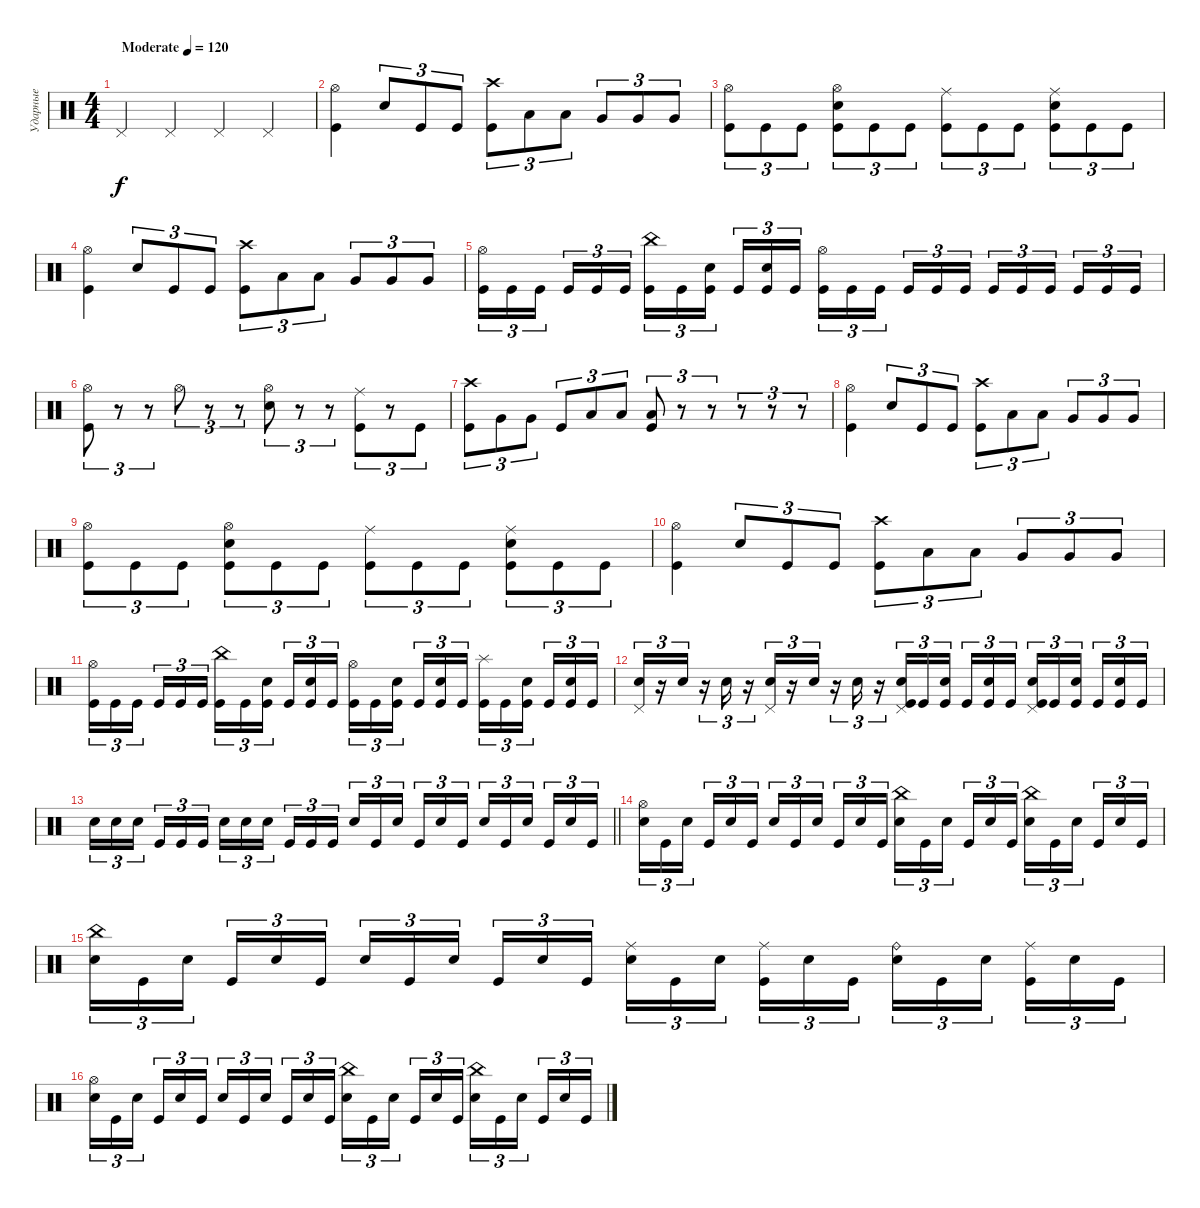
\track ("Ударные" "Ударные") {instrument percussion}
\staff {score}
\articulation defaults
\ts (4 4)
\tempo (120 "Moderate")
\clef neutral
\ks c "Pedal Hi-Hat (hit)".4{dy f} "Pedal Hi-Hat (hit)".4 "Pedal Hi-Hat (hit)".4 "Pedal Hi-Hat (hit)".4
|
("Hi-Hat (open)" "Kick (hit)").4 "Electric Snare (hit)".8{tu (3 2)} "Kick (hit)".8{tu (3 2)} "Kick (hit)".8{tu (3 2)} ("Crash high (hit)" "Kick (hit)").8{tu (3 2)} "Low Tom (hit)".8{tu (3 2)} "Low Tom (hit)".8{tu (3 2)} "Very Low Tom (hit)".8{tu (3 2)} "Very Low Tom (hit)".8{tu (3 2)} "Very Low Tom (hit)".8{tu (3 2)} |
("Hi-Hat (open)" "Kick (hit)").8{tu (3 2)} "Kick (hit)".8{tu (3 2)} "Kick (hit)".8{tu (3 2)} ("Hi-Hat (open)" "Electric Snare (hit)" "Kick (hit)").8{tu (3 2)} "Kick (hit)".8{tu (3 2)} "Kick (hit)".8{tu (3 2)} ("Ride (middle)" "Kick (hit)").8{tu (3 2)} "Kick (hit)".8{tu (3 2)} "Kick (hit)".8{tu (3 2)} ("Ride (middle)" "Electric Snare (hit)" "Kick (hit)").8{tu (3 2)} "Kick (hit)".8{tu (3 2)} "Kick (hit)".8{tu (3 2)} |
("Hi-Hat (open)" "Kick (hit)").4 "Electric Snare (hit)".8{tu (3 2)} "Kick (hit)".8{tu (3 2)} "Kick (hit)".8{tu (3 2)} ("Crash high (hit)" "Kick (hit)").8{tu (3 2)} "Low Tom (hit)".8{tu (3 2)} "Low Tom (hit)".8{tu (3 2)} "Very Low Tom (hit)".8{tu (3 2)} "Very Low Tom (hit)".8{tu (3 2)} "Very Low Tom (hit)".8{tu (3 2)} |
("Hi-Hat (open)" "Kick (hit)").16{tu (3 2)} "Kick (hit)".16{tu (3 2)} "Kick (hit)".16{tu (3 2) beam splitsecondary} "Kick (hit)".16{tu (3 2)} "Kick (hit)".16{tu (3 2)} "Kick (hit)".16{tu (3 2)} ("China (hit)" "Kick (hit)").16{tu (3 2)} "Kick (hit)".16{tu (3 2)} ("Electric Snare (hit)" "Kick (hit)").16{tu (3 2) beam splitsecondary} "Kick (hit)".16{tu (3 2)} ("Electric Snare (hit)" "Kick (hit)").16{tu (3 2)} "Kick (hit)".16{tu (3 2)} ("Hi-Hat (open)" "Kick (hit)").16{tu (3 2)} "Kick (hit)".16{tu (3 2)} "Kick (hit)".16{tu (3 2) beam splitsecondary} "Kick (hit)".16{tu (3 2)} "Kick (hit)".16{tu (3 2)} "Kick (hit)".16{tu (3 2)} "Kick (hit)".16{tu (3 2)} "Kick (hit)".16{tu (3 2)} "Kick (hit)".16{tu (3 2) beam splitsecondary} "Kick (hit)".16{tu (3 2)} "Kick (hit)".16{tu (3 2)} "Kick (hit)".16{tu (3 2)} |
("Hi-Hat (open)" "Kick (hit)").8{tu (3 2)} r.8{tu (3 2)} r.8{tu (3 2)} "Hi-Hat (open)".8{tu (3 2)} r.8{tu (3 2)} r.8{tu (3 2)} ("Hi-Hat (open)" "Electric Snare (hit)").8{tu (3 2)} r.8{tu (3 2)} r.8{tu (3 2)} ("Ride (middle)" "Kick (hit)").8{tu (3 2)} r.8{tu (3 2)} "Kick (hit)".8{tu (3 2)} |
("Crash high (hit)" "Kick (hit)").8{tu (3 2)} "Very Low Tom (hit)".8{tu (3 2)} "Very Low Tom (hit)".8{tu (3 2)} "Kick (hit)".8{tu (3 2)} "Low Tom (hit)".8{tu (3 2)} "Low Tom (hit)".8{tu (3 2)} ("Low Floor Tom (hit)" "Kick (hit)").8{tu (3 2)} r.8{tu (3 2)} r.8{tu (3 2)} r.8{tu (3 2)} r.8{tu (3 2)} r.8{tu (3 2)} |
("Hi-Hat (open)" "Kick (hit)").4 "Electric Snare (hit)".8{tu (3 2)} "Kick (hit)".8{tu (3 2)} "Kick (hit)".8{tu (3 2)} ("Crash high (hit)" "Kick (hit)").8{tu (3 2)} "Low Tom (hit)".8{tu (3 2)} "Low Tom (hit)".8{tu (3 2)} "Very Low Tom (hit)".8{tu (3 2)} "Very Low Tom (hit)".8{tu (3 2)} "Very Low Tom (hit)".8{tu (3 2)} |
("Hi-Hat (open)" "Kick (hit)").8{tu (3 2)} "Kick (hit)".8{tu (3 2)} "Kick (hit)".8{tu (3 2)} ("Hi-Hat (open)" "Electric Snare (hit)" "Kick (hit)").8{tu (3 2)} "Kick (hit)".8{tu (3 2)} "Kick (hit)".8{tu (3 2)} ("Ride (middle)" "Kick (hit)").8{tu (3 2)} "Kick (hit)".8{tu (3 2)} "Kick (hit)".8{tu (3 2)} ("Ride (middle)" "Electric Snare (hit)" "Kick (hit)").8{tu (3 2)} "Kick (hit)".8{tu (3 2)} "Kick (hit)".8{tu (3 2)} |
("Hi-Hat (open)" "Kick (hit)").4 "Electric Snare (hit)".8{tu (3 2)} "Kick (hit)".8{tu (3 2)} "Kick (hit)".8{tu (3 2)} ("Crash high (hit)" "Kick (hit)").8{tu (3 2)} "Low Tom (hit)".8{tu (3 2)} "Low Tom (hit)".8{tu (3 2)} "Very Low Tom (hit)".8{tu (3 2)} "Very Low Tom (hit)".8{tu (3 2)} "Very Low Tom (hit)".8{tu (3 2)} |
("Hi-Hat (open)" "Kick (hit)").16{tu (3 2)} "Kick (hit)".16{tu (3 2)} "Kick (hit)".16{tu (3 2) beam splitsecondary} "Kick (hit)".16{tu (3 2)} "Kick (hit)".16{tu (3 2)} "Kick (hit)".16{tu (3 2)} ("China (hit)" "Kick (hit)").16{tu (3 2)} "Kick (hit)".16{tu (3 2)} ("Electric Snare (hit)" "Kick (hit)").16{tu (3 2) beam splitsecondary} "Kick (hit)".16{tu (3 2)} ("Electric Snare (hit)" "Kick (hit)").16{tu (3 2)} "Kick (hit)".16{tu (3 2)} ("Hi-Hat (open)" "Kick (hit)").16{tu (3 2)} "Kick (hit)".16{tu (3 2)} ("Electric Snare (hit)" "Kick (hit)").16{tu (3 2) beam splitsecondary} "Kick (hit)".16{tu (3 2)} ("Electric Snare (hit)" "Kick (hit)").16{tu (3 2)} "Kick (hit)".16{tu (3 2)} ("Splash (hit)" "Kick (hit)").16{tu (3 2)} "Kick (hit)".16{tu (3 2)} ("Electric Snare (hit)" "Kick (hit)").16{tu (3 2) beam splitsecondary} "Kick (hit)".16{tu (3 2)} ("Electric Snare (hit)" "Kick (hit)").16{tu (3 2)} "Kick (hit)".16{tu (3 2)} |
("Electric Snare (hit)" "Pedal Hi-Hat (hit)").16{tu (3 2)} r.16{tu (3 2)} "Electric Snare (hit)".16{tu (3 2)} r.16{tu (3 2)} "Electric Snare (hit)".16{tu (3 2)} r.16{tu (3 2)} ("Electric Snare (hit)" "Pedal Hi-Hat (hit)").16{tu (3 2)} r.16{tu (3 2)} "Electric Snare (hit)".16{tu (3 2)} r.16{tu (3 2)} "Electric Snare (hit)".16{tu (3 2)} r.16{tu (3 2)} ("Electric Snare (hit)" "Pedal Hi-Hat (hit)" "Kick (hit)").16{tu (3 2)} "Kick (hit)".16{tu (3 2)} ("Electric Snare (hit)" "Kick (hit)").16{tu (3 2) beam splitsecondary} "Kick (hit)".16{tu (3 2)} ("Electric Snare (hit)" "Kick (hit)").16{tu (3 2)} "Kick (hit)".16{tu (3 2)} ("Electric Snare (hit)" "Pedal Hi-Hat (hit)" "Kick (hit)").16{tu (3 2)} "Kick (hit)".16{tu (3 2)} ("Electric Snare (hit)" "Kick (hit)").16{tu (3 2) beam splitsecondary} "Kick (hit)".16{tu (3 2)} ("Electric Snare (hit)" "Kick (hit)").16{tu (3 2)} "Kick (hit)".16{tu (3 2)} |
\barLineRight lightlight "Electric Snare (hit)".16{tu (3 2)} "Electric Snare (hit)".16{tu (3 2)} "Electric Snare (hit)".16{tu (3 2) beam splitsecondary} "Kick (hit)".16{tu (3 2)} "Kick (hit)".16{tu (3 2)} "Kick (hit)".16{tu (3 2)} "Electric Snare (hit)".16{tu (3 2)} "Electric Snare (hit)".16{tu (3 2)} "Electric Snare (hit)".16{tu (3 2) beam splitsecondary} "Kick (hit)".16{tu (3 2)} "Kick (hit)".16{tu (3 2)} "Kick (hit)".16{tu (3 2)} "Electric Snare (hit)".16{tu (3 2)} "Kick (hit)".16{tu (3 2)} "Electric Snare (hit)".16{tu (3 2) beam splitsecondary} "Kick (hit)".16{tu (3 2)} "Electric Snare (hit)".16{tu (3 2)} "Kick (hit)".16{tu (3 2)} "Electric Snare (hit)".16{tu (3 2)} "Kick (hit)".16{tu (3 2)} "Electric Snare (hit)".16{tu (3 2) beam splitsecondary} "Kick (hit)".16{tu (3 2)} "Electric Snare (hit)".16{tu (3 2)} "Kick (hit)".16{tu (3 2)}
|
\section ("" " ")
("Hi-Hat (open)" "Electric Snare (hit)").16{tu (3 2)} "Kick (hit)".16{tu (3 2)} "Electric Snare (hit)".16{tu (3 2) beam splitsecondary} "Kick (hit)".16{tu (3 2)} "Electric Snare (hit)".16{tu (3 2)} "Kick (hit)".16{tu (3 2)} "Electric Snare (hit)".16{tu (3 2)} "Kick (hit)".16{tu (3 2)} "Electric Snare (hit)".16{tu (3 2) beam splitsecondary} "Kick (hit)".16{tu (3 2)} "Electric Snare (hit)".16{tu (3 2)} "Kick (hit)".16{tu (3 2)} ("China (hit)" "Electric Snare (hit)").16{tu (3 2)} "Kick (hit)".16{tu (3 2)} "Electric Snare (hit)".16{tu (3 2) beam splitsecondary} "Kick (hit)".16{tu (3 2)} "Electric Snare (hit)".16{tu (3 2)} "Kick (hit)".16{tu (3 2)} ("China (hit)" "Electric Snare (hit)").16{tu (3 2)} "Kick (hit)".16{tu (3 2)} "Electric Snare (hit)".16{tu (3 2) beam splitsecondary} "Kick (hit)".16{tu (3 2)} "Electric Snare (hit)".16{tu (3 2)} "Kick (hit)".16{tu (3 2)} |
("China (hit)" "Electric Snare (hit)").16{tu (3 2)} "Kick (hit)".16{tu (3 2)} "Electric Snare (hit)".16{tu (3 2) beam splitsecondary} "Kick (hit)".16{tu (3 2)} "Electric Snare (hit)".16{tu (3 2)} "Kick (hit)".16{tu (3 2)} "Electric Snare (hit)".16{tu (3 2)} "Kick (hit)".16{tu (3 2)} "Electric Snare (hit)".16{tu (3 2) beam splitsecondary} "Kick (hit)".16{tu (3 2)} "Electric Snare (hit)".16{tu (3 2)} "Kick (hit)".16{tu (3 2)} ("Ride (middle)" "Electric Snare (hit)").16{tu (3 2)} "Kick (hit)".16{tu (3 2)} "Electric Snare (hit)".16{tu (3 2) beam splitsecondary} ("Ride (middle)" "Kick (hit)").16{tu (3 2)} "Electric Snare (hit)".16{tu (3 2)} "Kick (hit)".16{tu (3 2)} ("Ride (bell)" "Electric Snare (hit)").16{tu (3 2)} "Kick (hit)".16{tu (3 2)} "Electric Snare (hit)".16{tu (3 2) beam splitsecondary} ("Ride (middle)" "Kick (hit)").16{tu (3 2)} "Electric Snare (hit)".16{tu (3 2)} "Kick (hit)".16{tu (3 2)} |
("Hi-Hat (open)" "Electric Snare (hit)").16{tu (3 2)} "Kick (hit)".16{tu (3 2)} "Electric Snare (hit)".16{tu (3 2) beam splitsecondary} "Kick (hit)".16{tu (3 2)} "Electric Snare (hit)".16{tu (3 2)} "Kick (hit)".16{tu (3 2)} "Electric Snare (hit)".16{tu (3 2)} "Kick (hit)".16{tu (3 2)} "Electric Snare (hit)".16{tu (3 2) beam splitsecondary} "Kick (hit)".16{tu (3 2)} "Electric Snare (hit)".16{tu (3 2)} "Kick (hit)".16{tu (3 2)} ("China (hit)" "Electric Snare (hit)").16{tu (3 2)} "Kick (hit)".16{tu (3 2)} "Electric Snare (hit)".16{tu (3 2) beam splitsecondary} "Kick (hit)".16{tu (3 2)} "Electric Snare (hit)".16{tu (3 2)} "Kick (hit)".16{tu (3 2)} ("China (hit)" "Electric Snare (hit)").16{tu (3 2)} "Kick (hit)".16{tu (3 2)} "Electric Snare (hit)".16{tu (3 2) beam splitsecondary} "Kick (hit)".16{tu (3 2)} "Electric Snare (hit)".16{tu (3 2)} "Kick (hit)".16{tu (3 2)}
